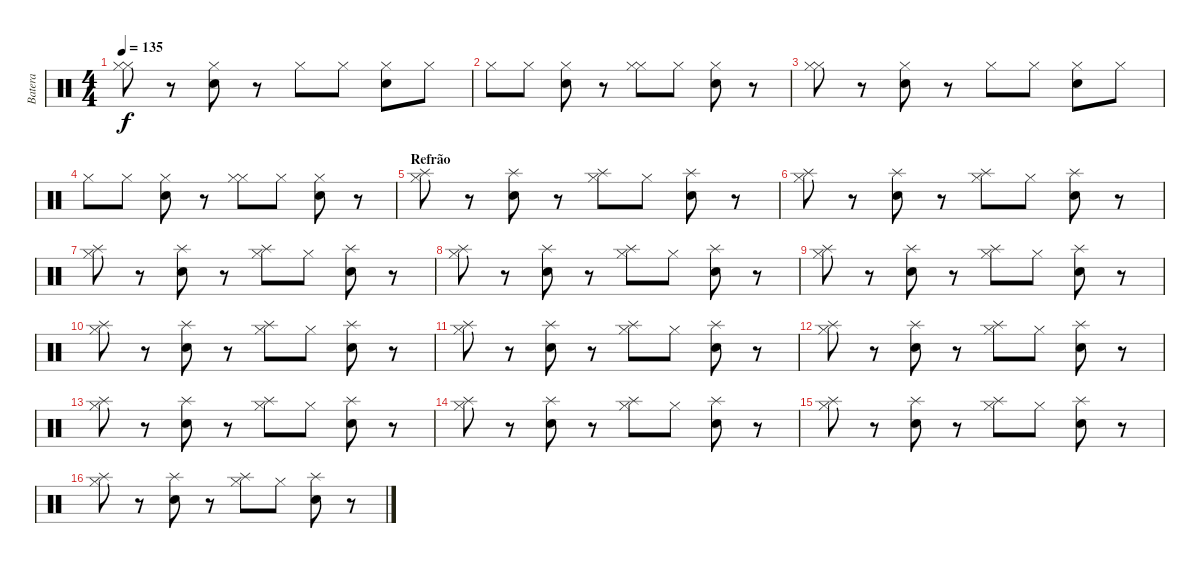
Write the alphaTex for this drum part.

\track ("Batera" "Batera") {instrument percussion}
\staff {score}
\articulation defaults
\ts (4 4)
\tempo 135
\clef neutral
\ks c
("Hi-Hat (closed)" "Hi-Hat (closed)").8{dy f} r.8 ("Hi-Hat (closed)" "Electric Snare (hit)").8 r.8 "Hi-Hat (closed)".8 "Hi-Hat (closed)".8 ("Hi-Hat (closed)" "Electric Snare (hit)").8 "Hi-Hat (closed)".8 |
"Hi-Hat (closed)".8 "Hi-Hat (closed)".8 ("Hi-Hat (closed)" "Electric Snare (hit)").8 r.8 ("Hi-Hat (closed)" "Hi-Hat (closed)").8 "Hi-Hat (closed)".8 ("Hi-Hat (closed)" "Electric Snare (hit)").8 r.8 |
("Hi-Hat (closed)" "Hi-Hat (closed)").8 r.8 ("Hi-Hat (closed)" "Electric Snare (hit)").8 r.8 "Hi-Hat (closed)".8 "Hi-Hat (closed)".8 ("Hi-Hat (closed)" "Electric Snare (hit)").8 "Hi-Hat (closed)".8 |
"Hi-Hat (closed)".8 "Hi-Hat (closed)".8 ("Hi-Hat (closed)" "Electric Snare (hit)").8 r.8 ("Hi-Hat (closed)" "Hi-Hat (closed)").8 "Hi-Hat (closed)".8 ("Hi-Hat (closed)" "Electric Snare (hit)").8 r.8 |
\section ("" "Refrão")
("Splash (hit)" "Hi-Hat (closed)").8 r.8 ("Splash (hit)" "Electric Snare (hit)").8 r.8 ("Splash (hit)" "Hi-Hat (closed)").8 "Hi-Hat (closed)".8 ("Splash (hit)" "Electric Snare (hit)").8 r.8 |
("Splash (hit)" "Hi-Hat (closed)").8 r.8 ("Splash (hit)" "Electric Snare (hit)").8 r.8 ("Splash (hit)" "Hi-Hat (closed)").8 "Hi-Hat (closed)".8 ("Splash (hit)" "Electric Snare (hit)").8 r.8 |
("Splash (hit)" "Hi-Hat (closed)").8 r.8 ("Splash (hit)" "Electric Snare (hit)").8 r.8 ("Splash (hit)" "Hi-Hat (closed)").8 "Hi-Hat (closed)".8 ("Splash (hit)" "Electric Snare (hit)").8 r.8 |
("Splash (hit)" "Hi-Hat (closed)").8 r.8 ("Splash (hit)" "Electric Snare (hit)").8 r.8 ("Splash (hit)" "Hi-Hat (closed)").8 "Hi-Hat (closed)".8 ("Splash (hit)" "Electric Snare (hit)").8 r.8 |
("Splash (hit)" "Hi-Hat (closed)").8 r.8 ("Splash (hit)" "Electric Snare (hit)").8 r.8 ("Splash (hit)" "Hi-Hat (closed)").8 "Hi-Hat (closed)".8 ("Splash (hit)" "Electric Snare (hit)").8 r.8 |
("Splash (hit)" "Hi-Hat (closed)").8 r.8 ("Splash (hit)" "Electric Snare (hit)").8 r.8 ("Splash (hit)" "Hi-Hat (closed)").8 "Hi-Hat (closed)".8 ("Splash (hit)" "Electric Snare (hit)").8 r.8 |
("Splash (hit)" "Hi-Hat (closed)").8 r.8 ("Splash (hit)" "Electric Snare (hit)").8 r.8 ("Splash (hit)" "Hi-Hat (closed)").8 "Hi-Hat (closed)".8 ("Splash (hit)" "Electric Snare (hit)").8 r.8 |
("Splash (hit)" "Hi-Hat (closed)").8 r.8 ("Splash (hit)" "Electric Snare (hit)").8 r.8 ("Splash (hit)" "Hi-Hat (closed)").8 "Hi-Hat (closed)".8 ("Splash (hit)" "Electric Snare (hit)").8 r.8 |
("Splash (hit)" "Hi-Hat (closed)").8 r.8 ("Splash (hit)" "Electric Snare (hit)").8 r.8 ("Splash (hit)" "Hi-Hat (closed)").8 "Hi-Hat (closed)".8 ("Splash (hit)" "Electric Snare (hit)").8 r.8 |
("Splash (hit)" "Hi-Hat (closed)").8 r.8 ("Splash (hit)" "Electric Snare (hit)").8 r.8 ("Splash (hit)" "Hi-Hat (closed)").8 "Hi-Hat (closed)".8 ("Splash (hit)" "Electric Snare (hit)").8 r.8 |
("Splash (hit)" "Hi-Hat (closed)").8 r.8 ("Splash (hit)" "Electric Snare (hit)").8 r.8 ("Splash (hit)" "Hi-Hat (closed)").8 "Hi-Hat (closed)".8 ("Splash (hit)" "Electric Snare (hit)").8 r.8 |
("Splash (hit)" "Hi-Hat (closed)").8 r.8 ("Splash (hit)" "Electric Snare (hit)").8 r.8 ("Splash (hit)" "Hi-Hat (closed)").8 "Hi-Hat (closed)".8 ("Splash (hit)" "Electric Snare (hit)").8 r.8
